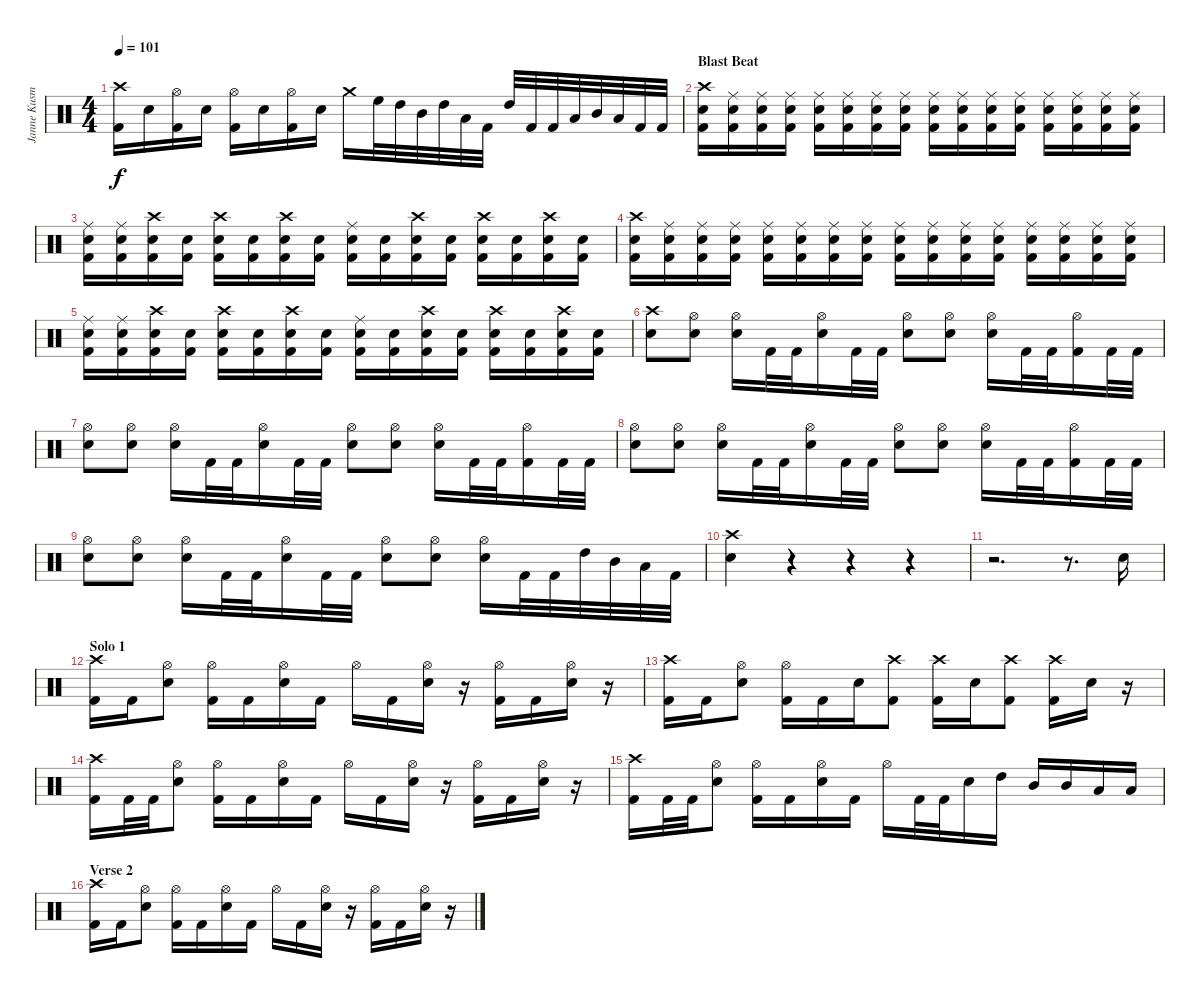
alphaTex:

\track ("Janne Kusmin" "Janne Kusm") {instrument percussion}
\staff {score}
\articulation defaults
\ts (4 4)
\tempo 101
\clef neutral
\ks c
("Crash high (hit)" "Kick (hit) 2").16{dy f} "Snare (hit) 2".16 ("Hi-Hat (open)" "Kick (hit) 2").16 "Snare (hit) 2".16 ("Hi-Hat (open)" "Kick (hit) 2").16 "Snare (hit) 2".16 ("Hi-Hat (open)" "Kick (hit) 2").16 "Snare (hit) 2".16 "Crash medium (hit)".16 "High Floor Tom (hit)".32 "High Tom (hit)".32 "Mid Tom (hit)".32 "High Tom (hit)".32 "Low Tom (hit)".32 "Kick (hit) 2".32 "High Tom (hit)".32 "Kick (hit) 2".32 "Kick (hit) 2".32 "Low Tom (hit)".32 "Mid Tom (hit)".32 "Low Tom (hit)".32 "Kick (hit) 2".32 "Kick (hit) 2".32 |
\section ("" "Blast Beat")
("Crash high (hit)" "Snare (hit) 2" "Kick (hit) 2").16 ("Ride (middle)" "Snare (hit) 2" "Kick (hit) 2").16 ("Ride (middle)" "Snare (hit) 2" "Kick (hit) 2").16 ("Ride (middle)" "Snare (hit) 2" "Kick (hit) 2").16 ("Ride (middle)" "Snare (hit) 2" "Kick (hit) 2").16 ("Ride (middle)" "Snare (hit) 2" "Kick (hit) 2").16 ("Ride (middle)" "Snare (hit) 2" "Kick (hit) 2").16 ("Ride (middle)" "Snare (hit) 2" "Kick (hit) 2").16 ("Ride (middle)" "Snare (hit) 2" "Kick (hit) 2").16 ("Ride (middle)" "Snare (hit) 2" "Kick (hit) 2").16 ("Ride (middle)" "Snare (hit) 2" "Kick (hit) 2").16 ("Ride (middle)" "Snare (hit) 2" "Kick (hit) 2").16 ("Ride (middle)" "Snare (hit) 2" "Kick (hit) 2").16 ("Ride (middle)" "Snare (hit) 2" "Kick (hit) 2").16 ("Ride (middle)" "Snare (hit) 2" "Kick (hit) 2").16 ("Ride (middle)" "Snare (hit) 2" "Kick (hit) 2").16 |
("Ride (middle)" "Snare (hit) 2" "Kick (hit) 2").16 ("Ride (middle)" "Snare (hit) 2" "Kick (hit) 2").16 ("Crash high (hit)" "Snare (hit) 2" "Kick (hit) 2").16 ("Snare (hit) 2" "Kick (hit) 2").16 ("Crash high (hit)" "Snare (hit) 2" "Kick (hit) 2").16 ("Snare (hit) 2" "Kick (hit) 2").16 ("Crash high (hit)" "Snare (hit) 2" "Kick (hit) 2").16 ("Snare (hit) 2" "Kick (hit) 2").16 ("Ride (middle)" "Snare (hit) 2" "Kick (hit) 2").16 ("Snare (hit) 2" "Kick (hit) 2").16 ("Crash high (hit)" "Snare (hit) 2" "Kick (hit) 2").16 ("Snare (hit) 2" "Kick (hit) 2").16 ("Crash high (hit)" "Snare (hit) 2" "Kick (hit) 2").16 ("Snare (hit) 2" "Kick (hit) 2").16 ("Crash high (hit)" "Snare (hit) 2" "Kick (hit) 2").16 ("Snare (hit) 2" "Kick (hit) 2").16 |
("Crash high (hit)" "Snare (hit) 2" "Kick (hit) 2").16 ("Ride (middle)" "Snare (hit) 2" "Kick (hit) 2").16 ("Ride (middle)" "Snare (hit) 2" "Kick (hit) 2").16 ("Ride (middle)" "Snare (hit) 2" "Kick (hit) 2").16 ("Ride (middle)" "Snare (hit) 2" "Kick (hit) 2").16 ("Ride (middle)" "Snare (hit) 2" "Kick (hit) 2").16 ("Ride (middle)" "Snare (hit) 2" "Kick (hit) 2").16 ("Ride (middle)" "Snare (hit) 2" "Kick (hit) 2").16 ("Ride (middle)" "Snare (hit) 2" "Kick (hit) 2").16 ("Ride (middle)" "Snare (hit) 2" "Kick (hit) 2").16 ("Ride (middle)" "Snare (hit) 2" "Kick (hit) 2").16 ("Ride (middle)" "Snare (hit) 2" "Kick (hit) 2").16 ("Ride (middle)" "Snare (hit) 2" "Kick (hit) 2").16 ("Ride (middle)" "Snare (hit) 2" "Kick (hit) 2").16 ("Ride (middle)" "Snare (hit) 2" "Kick (hit) 2").16 ("Ride (middle)" "Snare (hit) 2" "Kick (hit) 2").16 |
("Ride (middle)" "Snare (hit) 2" "Kick (hit) 2").16 ("Ride (middle)" "Snare (hit) 2" "Kick (hit) 2").16 ("Crash high (hit)" "Snare (hit) 2" "Kick (hit) 2").16 ("Snare (hit) 2" "Kick (hit) 2").16 ("Crash high (hit)" "Snare (hit) 2" "Kick (hit) 2").16 ("Snare (hit) 2" "Kick (hit) 2").16 ("Crash high (hit)" "Snare (hit) 2" "Kick (hit) 2").16 ("Snare (hit) 2" "Kick (hit) 2").16 ("Ride (middle)" "Snare (hit) 2" "Kick (hit) 2").16 ("Snare (hit) 2" "Kick (hit) 2").16 ("Crash high (hit)" "Snare (hit) 2" "Kick (hit) 2").16 ("Snare (hit) 2" "Kick (hit) 2").16 ("Crash high (hit)" "Snare (hit) 2" "Kick (hit) 2").16 ("Snare (hit) 2" "Kick (hit) 2").16 ("Crash high (hit)" "Snare (hit) 2" "Kick (hit) 2").16 ("Snare (hit) 2" "Kick (hit) 2").16 |
("Crash high (hit)" "Snare (hit) 2").8 ("Hi-Hat (open)" "Snare (hit) 2").8 ("Hi-Hat (open)" "Snare (hit) 2").16 "Kick (hit) 2".32 "Kick (hit) 2".32 ("Hi-Hat (open)" "Snare (hit) 2").16 "Kick (hit) 2".32 "Kick (hit) 2".32 ("Hi-Hat (open)" "Snare (hit) 2").8 ("Hi-Hat (open)" "Snare (hit) 2").8 ("Hi-Hat (open)" "Snare (hit) 2").16 "Kick (hit) 2".32 "Kick (hit) 2".32 ("Hi-Hat (open)" "Kick (hit) 2").16 "Kick (hit) 2".32 "Kick (hit) 2".32 |
("Hi-Hat (open)" "Snare (hit) 2").8 ("Hi-Hat (open)" "Snare (hit) 2").8 ("Hi-Hat (open)" "Snare (hit) 2").16 "Kick (hit) 2".32 "Kick (hit) 2".32 ("Hi-Hat (open)" "Snare (hit) 2").16 "Kick (hit) 2".32 "Kick (hit) 2".32 ("Hi-Hat (open)" "Snare (hit) 2").8 ("Hi-Hat (open)" "Snare (hit) 2").8 ("Hi-Hat (open)" "Snare (hit) 2").16 "Kick (hit) 2".32 "Kick (hit) 2".32 ("Hi-Hat (open)" "Kick (hit) 2").16 "Kick (hit) 2".32 "Kick (hit) 2".32 |
("Hi-Hat (open)" "Snare (hit) 2").8 ("Hi-Hat (open)" "Snare (hit) 2").8 ("Hi-Hat (open)" "Snare (hit) 2").16 "Kick (hit) 2".32 "Kick (hit) 2".32 ("Hi-Hat (open)" "Snare (hit) 2").16 "Kick (hit) 2".32 "Kick (hit) 2".32 ("Hi-Hat (open)" "Snare (hit) 2").8 ("Hi-Hat (open)" "Snare (hit) 2").8 ("Hi-Hat (open)" "Snare (hit) 2").16 "Kick (hit) 2".32 "Kick (hit) 2".32 ("Hi-Hat (open)" "Kick (hit) 2").16 "Kick (hit) 2".32 "Kick (hit) 2".32 |
("Hi-Hat (open)" "Snare (hit) 2").8 ("Hi-Hat (open)" "Snare (hit) 2").8 ("Hi-Hat (open)" "Snare (hit) 2").16 "Kick (hit) 2".32 "Kick (hit) 2".32 ("Hi-Hat (open)" "Snare (hit) 2").16 "Kick (hit) 2".32 "Kick (hit) 2".32 ("Hi-Hat (open)" "Snare (hit) 2").8 ("Hi-Hat (open)" "Snare (hit) 2").8 ("Hi-Hat (open)" "Snare (hit) 2").16 "Kick (hit) 2".32 "Kick (hit) 2".32 "High Tom (hit)".32 "Mid Tom (hit)".32 "Low Tom (hit)".32 "Kick (hit) 2".32 |
("Crash high (hit)" "Snare (hit) 2").4 r.4 r.4 r.4 |
r.2{d} r.8{d} "Snare (hit) 2".16 |
\section ("" "Solo 1")
("Crash high (hit)" "Kick (hit) 2").16 "Kick (hit) 2".16 ("Hi-Hat (open)" "Snare (hit) 2").8 ("Hi-Hat (open)" "Kick (hit) 2").16 "Kick (hit) 2".16 ("Hi-Hat (open)" "Snare (hit) 2").16 "Kick (hit) 2".16 "Hi-Hat (open)".16 "Kick (hit) 2".16 ("Hi-Hat (open)" "Snare (hit) 2").16 r.16 ("Hi-Hat (open)" "Kick (hit) 2").16 "Kick (hit) 2".16 ("Hi-Hat (open)" "Snare (hit) 2").16 r.16 |
("Crash high (hit)" "Kick (hit) 2").16 "Kick (hit) 2".16 ("Hi-Hat (open)" "Snare (hit) 2").8 ("Hi-Hat (open)" "Kick (hit) 2").16 "Kick (hit) 2".16 "Snare (hit) 2".16 ("Crash high (hit)" "Kick (hit) 2").8 ("Crash high (hit)" "Kick (hit) 2").16 "Snare (hit) 2".16 ("Crash high (hit)" "Kick (hit) 2").8 ("Crash high (hit)" "Kick (hit) 2").16 "Snare (hit) 2".16 r.16 |
("Crash high (hit)" "Kick (hit) 2").16 "Kick (hit) 2".32 "Kick (hit) 2".32 ("Hi-Hat (open)" "Snare (hit) 2").8 ("Hi-Hat (open)" "Kick (hit) 2").16 "Kick (hit) 2".16 ("Hi-Hat (open)" "Snare (hit) 2").16 "Kick (hit) 2".16 "Hi-Hat (open)".16 "Kick (hit) 2".16 ("Hi-Hat (open)" "Snare (hit) 2").16 r.16 ("Hi-Hat (open)" "Kick (hit) 2").16 "Kick (hit) 2".16 ("Hi-Hat (open)" "Snare (hit) 2").16 r.16 |
("Crash high (hit)" "Kick (hit) 2").16 "Kick (hit) 2".32 "Kick (hit) 2".32 ("Hi-Hat (open)" "Snare (hit) 2").8 ("Hi-Hat (open)" "Kick (hit) 2").16 "Kick (hit) 2".16 ("Hi-Hat (open)" "Snare (hit) 2").16 "Kick (hit) 2".16 "Hi-Hat (open)".16 "Kick (hit) 2".32 "Kick (hit) 2".32 "Snare (hit) 2".16 "High Tom (hit)".16 "Mid Tom (hit)".16 "Mid Tom (hit)".16 "Low Tom (hit)".16 "Low Tom (hit)".16 |
\section ("" "Verse 2")
("Crash high (hit)" "Kick (hit) 2").16 "Kick (hit) 2".16 ("Hi-Hat (open)" "Snare (hit) 2").8 ("Hi-Hat (open)" "Kick (hit) 2").16 "Kick (hit) 2".16 ("Hi-Hat (open)" "Snare (hit) 2").16 "Kick (hit) 2".16 "Hi-Hat (open)".16 "Kick (hit) 2".16 ("Hi-Hat (open)" "Snare (hit) 2").16 r.16 ("Hi-Hat (open)" "Kick (hit) 2").16 "Kick (hit) 2".16 ("Hi-Hat (open)" "Snare (hit) 2").16 r.16
